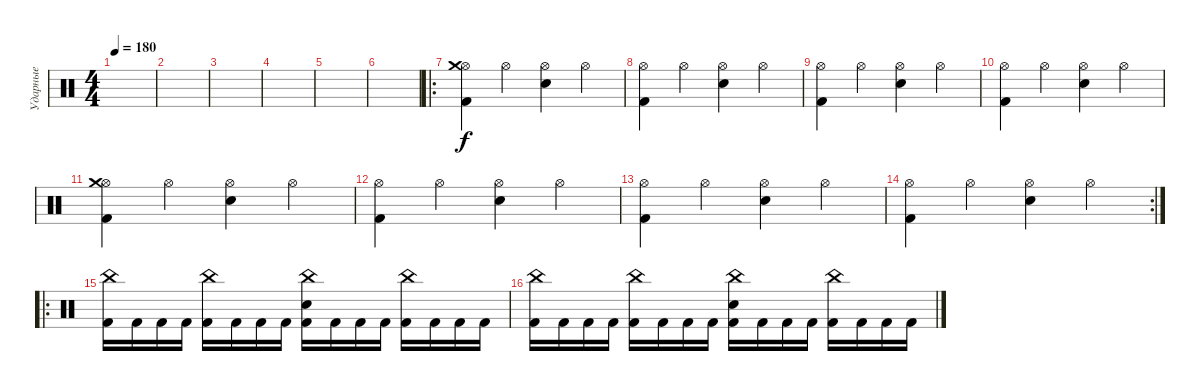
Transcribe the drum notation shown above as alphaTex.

\track ("Ударные" "Ударные") {instrument percussion}
\staff {score}
\articulation defaults
\ts (4 4)
\tempo 180
\clef neutral
\ks c
|
|
|
|
|
|
\ro
("Hi-Hat (open)" "Kick (hit) 2" "Crash medium (hit)").4 "Hi-Hat (open)".4 ("Hi-Hat (open)" "Electric Snare (hit)").4 "Hi-Hat (open)".4 |
("Hi-Hat (open)" "Kick (hit) 2").4 "Hi-Hat (open)".4 ("Hi-Hat (open)" "Electric Snare (hit)").4 "Hi-Hat (open)".4 |
("Hi-Hat (open)" "Kick (hit) 2").4 "Hi-Hat (open)".4 ("Hi-Hat (open)" "Electric Snare (hit)").4 "Hi-Hat (open)".4 |
("Hi-Hat (open)" "Kick (hit) 2").4 "Hi-Hat (open)".4 ("Hi-Hat (open)" "Electric Snare (hit)").4 "Hi-Hat (open)".4 |
("Hi-Hat (open)" "Kick (hit) 2" "Crash medium (hit)").4 "Hi-Hat (open)".4 ("Hi-Hat (open)" "Electric Snare (hit)").4 "Hi-Hat (open)".4 |
("Hi-Hat (open)" "Kick (hit) 2").4 "Hi-Hat (open)".4 ("Hi-Hat (open)" "Electric Snare (hit)").4 "Hi-Hat (open)".4 |
("Hi-Hat (open)" "Kick (hit) 2").4 "Hi-Hat (open)".4 ("Hi-Hat (open)" "Electric Snare (hit)").4 "Hi-Hat (open)".4 |
\rc 2
("Hi-Hat (open)" "Kick (hit) 2").4 "Hi-Hat (open)".4 ("Hi-Hat (open)" "Electric Snare (hit)").4 "Hi-Hat (open)".4 |
\ro
("Kick (hit) 2" "China (hit)").16 "Kick (hit) 2".16 "Kick (hit) 2".16 "Kick (hit) 2".16 ("Kick (hit) 2" "China (hit)").16 "Kick (hit) 2".16 "Kick (hit) 2".16 "Kick (hit) 2".16 ("Kick (hit) 2" "China (hit)" "Electric Snare (hit)").16 "Kick (hit) 2".16 "Kick (hit) 2".16 "Kick (hit) 2".16 ("Kick (hit) 2" "China (hit)").16 "Kick (hit) 2".16 "Kick (hit) 2".16 "Kick (hit) 2".16 |
("Kick (hit) 2" "China (hit)").16 "Kick (hit) 2".16 "Kick (hit) 2".16 "Kick (hit) 2".16 ("Kick (hit) 2" "China (hit)").16 "Kick (hit) 2".16 "Kick (hit) 2".16 "Kick (hit) 2".16 ("Kick (hit) 2" "China (hit)" "Electric Snare (hit)").16 "Kick (hit) 2".16 "Kick (hit) 2".16 "Kick (hit) 2".16 ("Kick (hit) 2" "China (hit)").16 "Kick (hit) 2".16 "Kick (hit) 2".16 "Kick (hit) 2".16
